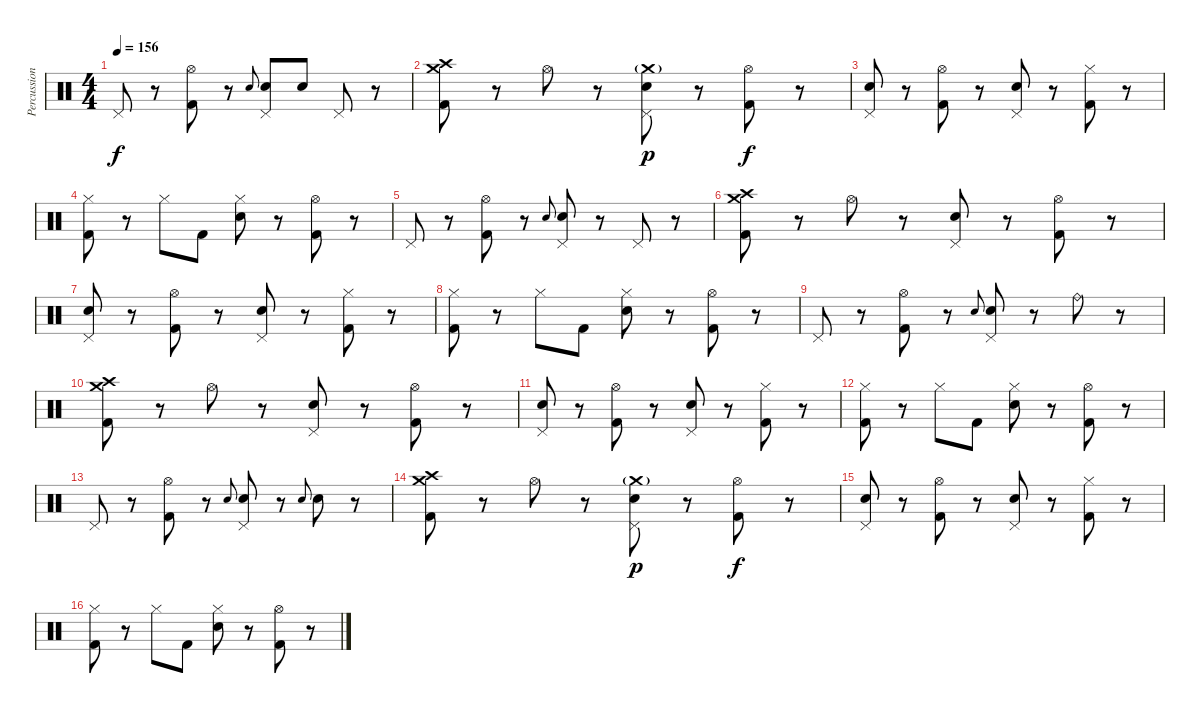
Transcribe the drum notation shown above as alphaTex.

\track ("Percussion" "Percussion") {instrument percussion}
\staff {score}
\articulation defaults
\ts (4 4)
\tempo 156
\clef neutral
\ks c "Pedal Hi-Hat (hit)".8{dy f}
r.8 ("Hi-Hat (open)" "Kick (hit) 2").8 r.8 "Snare (hit) 2".8{gr onbeat} ("Pedal Hi-Hat (hit)" "Snare (hit) 2").8 "Snare (hit) 2".8 "Pedal Hi-Hat (hit)".8 r.8 |
("Crash high (hit)" "Crash medium (hit)" "Kick (hit) 2").8 r.8 "Hi-Hat (open)".8 r.8 ("Crash medium (hit)"{g} "Pedal Hi-Hat (hit)" "Snare (hit) 2").8{dy p} r.8 ("Hi-Hat (open)" "Kick (hit) 2").8{dy f} r.8 |
("Pedal Hi-Hat (hit)" "Snare (hit) 2").8 r.8 ("Hi-Hat (open)" "Kick (hit) 2").8 r.8 ("Pedal Hi-Hat (hit)" "Snare (hit) 2").8 r.8 ("Hi-Hat (closed)" "Kick (hit) 2").8 r.8 |
("Hi-Hat (closed)" "Kick (hit) 2").8 r.8 "Hi-Hat (closed)".8 "Kick (hit) 2".8 ("Hi-Hat (closed)" "Snare (hit) 2").8 r.8 ("Hi-Hat (open)" "Kick (hit) 2").8 r.8 |
"Pedal Hi-Hat (hit)".8 r.8 ("Hi-Hat (open)" "Kick (hit) 2").8 r.8 "Snare (hit) 2".8{gr onbeat} ("Pedal Hi-Hat (hit)" "Snare (hit) 2").8 r.8 "Pedal Hi-Hat (hit)".8 r.8 |
("Crash high (hit)" "Crash medium (hit)" "Kick (hit) 2").8 r.8 "Hi-Hat (open)".8 r.8 ("Pedal Hi-Hat (hit)" "Snare (hit) 2").8 r.8 ("Hi-Hat (open)" "Kick (hit) 2").8 r.8 |
("Pedal Hi-Hat (hit)" "Snare (hit) 2").8 r.8 ("Hi-Hat (open)" "Kick (hit) 2").8 r.8 ("Pedal Hi-Hat (hit)" "Snare (hit) 2").8 r.8 ("Hi-Hat (closed)" "Kick (hit) 2").8 r.8 |
("Hi-Hat (closed)" "Kick (hit) 2").8 r.8 "Hi-Hat (closed)".8 "Kick (hit) 2".8 ("Hi-Hat (closed)" "Snare (hit) 2").8 r.8 ("Hi-Hat (open)" "Kick (hit) 2").8 r.8 |
"Pedal Hi-Hat (hit)".8 r.8 ("Hi-Hat (open)" "Kick (hit) 2").8 r.8 "Snare (hit) 2".8{gr onbeat} ("Pedal Hi-Hat (hit)" "Snare (hit) 2").8 r.8 "Ride (bell)".8 r.8 |
("Crash high (hit)" "Crash medium (hit)" "Kick (hit) 2").8 r.8 "Hi-Hat (open)".8 r.8 ("Pedal Hi-Hat (hit)" "Snare (hit) 2").8 r.8 ("Hi-Hat (open)" "Kick (hit) 2").8 r.8 |
("Pedal Hi-Hat (hit)" "Snare (hit) 2").8 r.8 ("Hi-Hat (open)" "Kick (hit) 2").8 r.8 ("Pedal Hi-Hat (hit)" "Snare (hit) 2").8 r.8 ("Hi-Hat (closed)" "Kick (hit) 2").8 r.8 |
("Hi-Hat (closed)" "Kick (hit) 2").8 r.8 "Hi-Hat (closed)".8 "Kick (hit) 2".8 ("Hi-Hat (closed)" "Snare (hit) 2").8 r.8 ("Hi-Hat (open)" "Kick (hit) 2").8 r.8 |
"Pedal Hi-Hat (hit)".8 r.8 ("Hi-Hat (open)" "Kick (hit) 2").8 r.8 "Snare (hit) 2".8{gr onbeat} ("Pedal Hi-Hat (hit)" "Snare (hit) 2").8 r.8 "Snare (hit) 2".8{gr onbeat} "Snare (hit) 2".8 r.8 |
("Crash high (hit)" "Crash medium (hit)" "Kick (hit) 2").8 r.8 "Hi-Hat (open)".8 r.8 ("Crash medium (hit)"{g} "Pedal Hi-Hat (hit)" "Snare (hit) 2").8{dy p} r.8 ("Hi-Hat (open)" "Kick (hit) 2").8{dy f} r.8 |
("Pedal Hi-Hat (hit)" "Snare (hit) 2").8 r.8 ("Hi-Hat (open)" "Kick (hit) 2").8 r.8 ("Pedal Hi-Hat (hit)" "Snare (hit) 2").8 r.8 ("Hi-Hat (closed)" "Kick (hit) 2").8 r.8 |
("Hi-Hat (closed)" "Kick (hit) 2").8 r.8 "Hi-Hat (closed)".8 "Kick (hit) 2".8 ("Hi-Hat (closed)" "Snare (hit) 2").8 r.8 ("Hi-Hat (open)" "Kick (hit) 2").8 r.8
